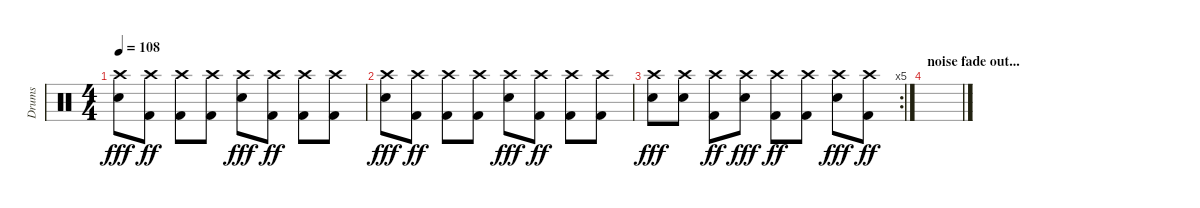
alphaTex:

\track ("Drums" "Drums") {instrument percussion}
\staff {score}
\articulation defaults
\ts (4 4)
\tempo 108
\clef neutral
\ks c
("Crash high (hit)" "Electric Snare (hit)").8{dy fff} ("Crash high (hit)" "Kick (hit) 2").8{dy ff} ("Crash high (hit)" "Kick (hit) 2").8 ("Crash high (hit)" "Kick (hit) 2").8 ("Crash high (hit)" "Electric Snare (hit)").8{dy fff} ("Crash high (hit)" "Kick (hit) 2").8{dy ff} ("Crash high (hit)" "Kick (hit) 2").8 ("Crash high (hit)" "Kick (hit) 2").8 |
("Crash high (hit)" "Electric Snare (hit)").8{dy fff} ("Crash high (hit)" "Kick (hit) 2").8{dy ff} ("Crash high (hit)" "Kick (hit) 2").8 ("Crash high (hit)" "Kick (hit) 2").8 ("Crash high (hit)" "Electric Snare (hit)").8{dy fff} ("Crash high (hit)" "Kick (hit) 2").8{dy ff} ("Crash high (hit)" "Kick (hit) 2").8 ("Crash high (hit)" "Kick (hit) 2").8 |
\rc 5
("Crash high (hit)" "Electric Snare (hit)").8{dy fff} ("Crash high (hit)" "Electric Snare (hit)").8 ("Crash high (hit)" "Kick (hit) 2").8{dy ff} ("Crash high (hit)" "Electric Snare (hit)").8{dy fff} ("Crash high (hit)" "Kick (hit) 2").8{dy ff} ("Crash high (hit)" "Kick (hit) 2").8 ("Crash high (hit)" "Electric Snare (hit)").8{dy fff} ("Crash high (hit)" "Kick (hit) 2").8{dy ff} |
\section ("" "noise fade out...")
